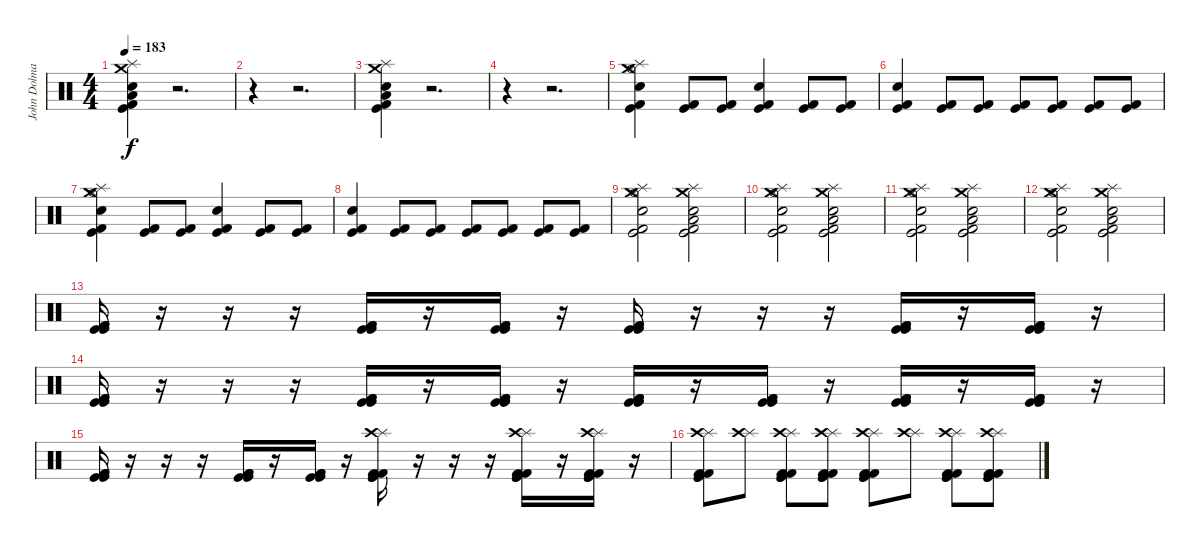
\track ("John Dolmayan" "John Dolma") {instrument percussion}
\staff {score}
\articulation defaults
\ts (4 4)
\tempo 183
\clef neutral
\ks c
("Crash medium (hit)" "Kick (hit) 2" "Kick (hit)" "Electric Snare (hit)" "Low Tom (hit)" "Splash (hit)").4{dy f} r.2{d} |
r.4 r.2{d} |
("Crash medium (hit)" "Kick (hit) 2" "Kick (hit)" "Electric Snare (hit)" "Low Tom (hit)" "Splash (hit)").4 r.2{d} |
r.4 r.2{d} |
("Hi-Hat (open)" "Crash medium (hit)" "Splash (hit)" "Kick (hit)" "Kick (hit) 2" "Electric Snare (hit)").4 ("Kick (hit) 2" "Kick (hit)").8 ("Kick (hit) 2" "Kick (hit)").8 ("Kick (hit) 2" "Kick (hit)" "Electric Snare (hit)").4 ("Kick (hit) 2" "Kick (hit)").8 ("Kick (hit) 2" "Kick (hit)").8 |
("Kick (hit) 2" "Kick (hit)" "Electric Snare (hit)").4 ("Kick (hit) 2" "Kick (hit)").8 ("Kick (hit) 2" "Kick (hit)").8 ("Kick (hit) 2" "Kick (hit)").8 ("Kick (hit) 2" "Kick (hit)").8 ("Kick (hit) 2" "Kick (hit)").8 ("Kick (hit) 2" "Kick (hit)").8 |
("Hi-Hat (open)" "Crash medium (hit)" "Splash (hit)" "Kick (hit)" "Kick (hit) 2" "Electric Snare (hit)").4 ("Kick (hit) 2" "Kick (hit)").8 ("Kick (hit) 2" "Kick (hit)").8 ("Kick (hit) 2" "Kick (hit)" "Electric Snare (hit)").4 ("Kick (hit) 2" "Kick (hit)").8 ("Kick (hit) 2" "Kick (hit)").8 |
("Kick (hit) 2" "Kick (hit)" "Electric Snare (hit)").4 ("Kick (hit) 2" "Kick (hit)").8 ("Kick (hit) 2" "Kick (hit)").8 ("Kick (hit) 2" "Kick (hit)").8 ("Kick (hit) 2" "Kick (hit)").8 ("Kick (hit) 2" "Kick (hit)").8 ("Kick (hit) 2" "Kick (hit)").8 |
("Hi-Hat (open)" "Crash medium (hit)" "Splash (hit)" "Kick (hit)" "Kick (hit) 2" "Electric Snare (hit)").2 ("Splash (hit)" "Crash medium (hit)" "Kick (hit) 2" "Kick (hit)" "Low Tom (hit)" "Electric Snare (hit)").2 |
("Hi-Hat (open)" "Crash medium (hit)" "Splash (hit)" "Kick (hit)" "Kick (hit) 2" "Electric Snare (hit)").2 ("Splash (hit)" "Crash medium (hit)" "Kick (hit) 2" "Kick (hit)" "Low Tom (hit)" "Electric Snare (hit)").2 |
("Hi-Hat (open)" "Crash medium (hit)" "Splash (hit)" "Kick (hit)" "Kick (hit) 2" "Electric Snare (hit)").2 ("Splash (hit)" "Crash medium (hit)" "Kick (hit) 2" "Kick (hit)" "Low Tom (hit)" "Electric Snare (hit)").2 |
("Hi-Hat (open)" "Crash medium (hit)" "Splash (hit)" "Kick (hit)" "Kick (hit) 2" "Electric Snare (hit)").2 ("Splash (hit)" "Crash medium (hit)" "Kick (hit) 2" "Kick (hit)" "Low Tom (hit)" "Electric Snare (hit)").2 |
("Kick (hit) 2" "Kick (hit)" "Kick (hit)" "Kick (hit) 2").16 r.16 r.16 r.16 ("Kick (hit) 2" "Kick (hit)" "Kick (hit)" "Kick (hit) 2").16 r.16 ("Kick (hit) 2" "Kick (hit)" "Kick (hit)" "Kick (hit) 2").16 r.16 ("Kick (hit) 2" "Kick (hit)" "Kick (hit)" "Kick (hit) 2").16 r.16 r.16 r.16 ("Kick (hit) 2" "Kick (hit)" "Kick (hit)" "Kick (hit) 2").16 r.16 ("Kick (hit) 2" "Kick (hit)" "Kick (hit)" "Kick (hit) 2").16 r.16 |
("Kick (hit) 2" "Kick (hit)" "Kick (hit)" "Kick (hit) 2").16 r.16 r.16 r.16 ("Kick (hit) 2" "Kick (hit)" "Kick (hit)" "Kick (hit) 2").16 r.16 ("Kick (hit) 2" "Kick (hit)" "Kick (hit)" "Kick (hit) 2").16 r.16 ("Kick (hit) 2" "Kick (hit)" "Kick (hit)" "Kick (hit) 2").16 r.16 ("Kick (hit) 2" "Kick (hit)" "Kick (hit)" "Kick (hit) 2").16 r.16 ("Kick (hit) 2" "Kick (hit)" "Kick (hit)" "Kick (hit) 2").16 r.16 ("Kick (hit) 2" "Kick (hit)" "Kick (hit)" "Kick (hit) 2").16 r.16 |
("Kick (hit) 2" "Kick (hit)" "Kick (hit)" "Kick (hit) 2").16 r.16 r.16 r.16 ("Kick (hit) 2" "Kick (hit)" "Kick (hit)" "Kick (hit) 2").16 r.16 ("Kick (hit) 2" "Kick (hit)" "Kick (hit)" "Kick (hit) 2").16 r.16 ("Splash (hit)" "Crash high (hit)" "Kick (hit) 2" "Kick (hit)" "Kick (hit)" "Kick (hit) 2").16 r.16 r.16 r.16 ("Splash (hit)" "Crash high (hit)" "Kick (hit) 2" "Kick (hit)" "Kick (hit)" "Kick (hit) 2").16 r.16 ("Splash (hit)" "Crash high (hit)" "Kick (hit) 2" "Kick (hit)" "Kick (hit)" "Kick (hit) 2").16 r.16 |
("Splash (hit)" "Crash high (hit)" "Kick (hit) 2" "Kick (hit)" "Kick (hit)" "Kick (hit) 2").8 ("Splash (hit)" "Crash high (hit)").8 ("Splash (hit)" "Crash high (hit)" "Kick (hit) 2" "Kick (hit)" "Kick (hit)" "Kick (hit) 2").8 ("Splash (hit)" "Crash high (hit)" "Kick (hit) 2" "Kick (hit)" "Kick (hit)" "Kick (hit) 2").8 ("Splash (hit)" "Crash high (hit)" "Kick (hit) 2" "Kick (hit)" "Kick (hit)" "Kick (hit) 2").8 ("Splash (hit)" "Crash high (hit)").8 ("Splash (hit)" "Crash high (hit)" "Kick (hit) 2" "Kick (hit)" "Kick (hit)" "Kick (hit) 2").8 ("Splash (hit)" "Crash high (hit)" "Kick (hit) 2" "Kick (hit)" "Kick (hit)" "Kick (hit) 2").8
